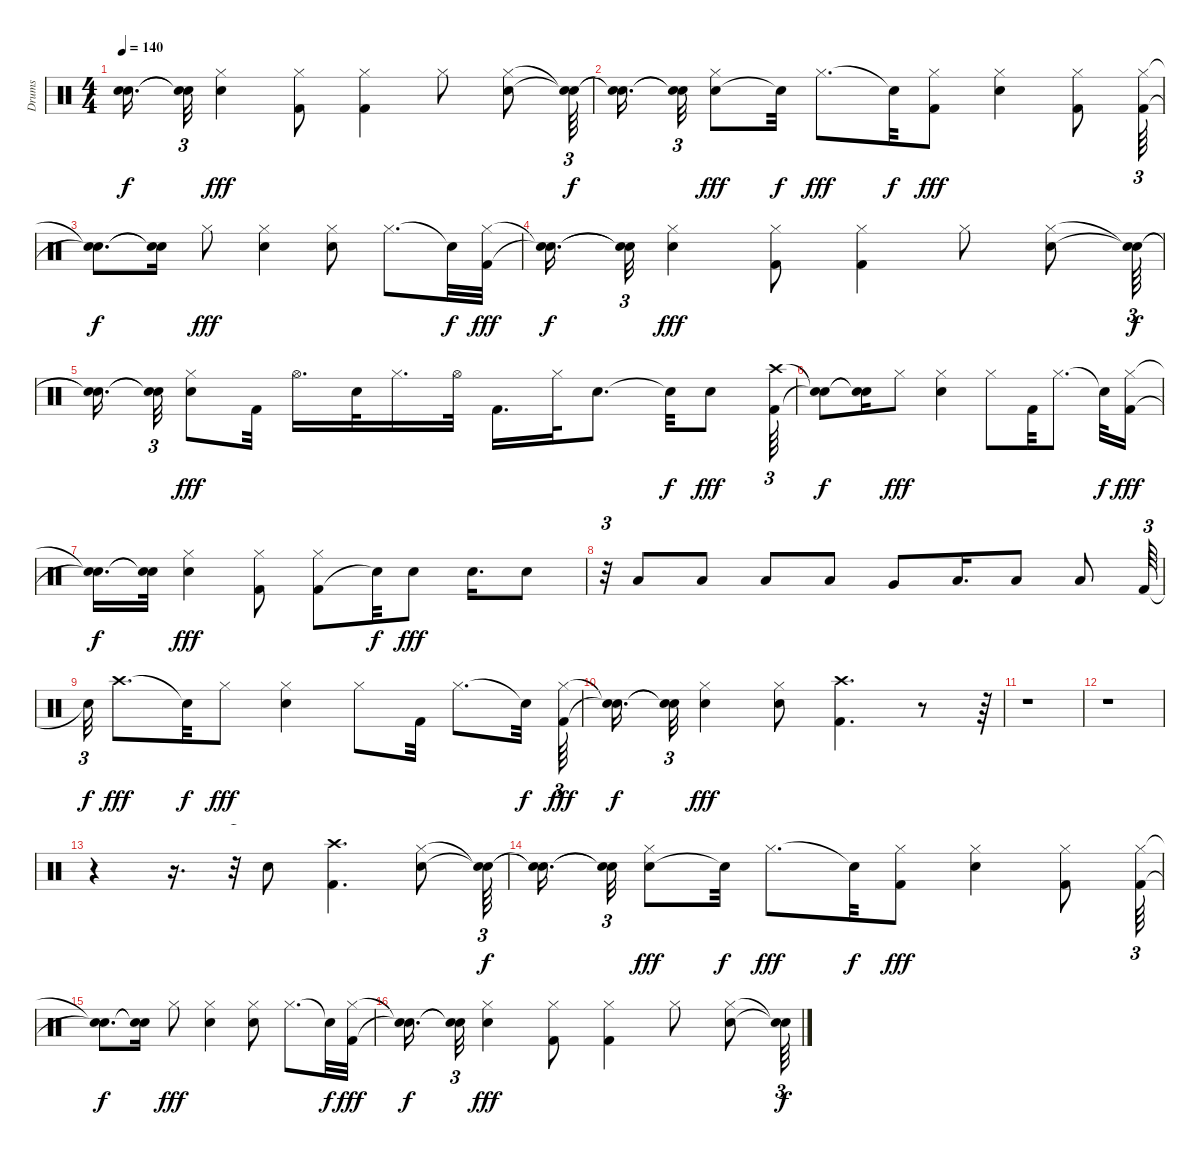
\track ("Drums" "Drums") {instrument percussion}
\staff {score}
\articulation defaults
\ts (4 4)
\tempo 140
\clef neutral
\ks c
("Snare (hit)"{t} "Snare (hit)"{t}).16{d dy f} ("Snare (hit)"{t} "Snare (hit)"{t}).32{tu (3 2)} ("Electric Snare (hit)" "Hi-Hat (closed)").4{dy fff} ("Kick (hit) 2" "Hi-Hat (closed)").8 ("Hi-Hat (closed)" "Kick (hit) 2").4 "Hi-Hat (closed)".8 ("Snare (hit) 2" "Hi-Hat (closed)").8 ("Snare (hit)"{t} "Snare (hit)"{t}).64{tu (3 2) dy f} |
("Snare (hit)"{t} "Snare (hit)"{t}).16{d} ("Snare (hit)"{t} "Snare (hit)"{t}).32{tu (3 2)} ("Snare (hit) 2" "Hi-Hat (closed)").8{dy fff} "Snare (hit)"{t}.32{dy f} "Hi-Hat (closed)".8{d dy fff} "Snare (hit)"{t}.32{dy f} ("Hi-Hat (closed)" "Kick (hit) 2").8{dy fff} ("Electric Snare (hit)" "Hi-Hat (closed)").4 ("Kick (hit) 2" "Hi-Hat (closed)").8 ("Kick (hit) 2" "Hi-Hat (closed)").64{tu (3 2)} |
("Snare (hit)"{t} "Snare (hit)"{t}).8{d dy f} ("Snare (hit)"{t} "Snare (hit)"{t}).16 "Hi-Hat (closed)".8{dy fff} ("Snare (hit) 2" "Hi-Hat (closed)").4 ("Snare (hit) 2" "Hi-Hat (closed)").8 "Hi-Hat (closed)".8{d} "Snare (hit)"{t}.32{dy f} ("Hi-Hat (closed)" "Kick (hit) 2").32{dy fff} |
("Snare (hit)"{t} "Snare (hit)"{t}).16{d dy f} ("Snare (hit)"{t} "Snare (hit)"{t}).32{tu (3 2)} ("Electric Snare (hit)" "Hi-Hat (closed)").4{dy fff} ("Hi-Hat (closed)" "Kick (hit) 2").8 ("Kick (hit) 2" "Hi-Hat (closed)").4 "Hi-Hat (closed)".8 ("Snare (hit) 2" "Hi-Hat (closed)").8 ("Snare (hit)"{t} "Snare (hit)"{t}).64{tu (3 2) dy f} |
("Snare (hit)"{t} "Snare (hit)"{t}).16{d} ("Snare (hit)"{t} "Snare (hit)"{t}).32{tu (3 2)} ("Snare (hit) 2" "Hi-Hat (closed)").8{dy fff} "Kick (hit) 2".32 "Hi-Hat (open)".16{d} "Electric Snare (hit)".32 "Hi-Hat (closed)".16{d} "Hi-Hat (open)".32 "Kick (hit) 2".16{d} "Hi-Hat (closed)".32 "Snare (hit) 2".8{d} "Snare (hit)"{t}.32{dy f} "Snare (hit) 2".8{dy fff} ("Crash high (hit)" "Kick (hit) 2").64{tu (3 2)} |
("Snare (hit)"{t} "Snare (hit)"{t}).8{dy f} ("Snare (hit)"{t} "Snare (hit)"{t}).16 "Hi-Hat (closed)".8{dy fff} ("Snare (hit) 2" "Hi-Hat (closed)").4 "Hi-Hat (closed)".8 "Kick (hit) 2".32 "Hi-Hat (closed)".8{d} "Snare (hit)"{t}.32{dy f} ("Hi-Hat (closed)" "Kick (hit) 2").16{dy fff} |
("Snare (hit)"{t} "Snare (hit)"{t}).16{d dy f} ("Snare (hit)"{t} "Snare (hit)"{t}).32 ("Electric Snare (hit)" "Hi-Hat (closed)").4{dy fff} ("Hi-Hat (closed)" "Kick (hit) 2").8 ("Kick (hit) 2" "Hi-Hat (closed)").8 "Snare (hit)"{t}.32{dy f} "Snare (hit) 2".8{dy fff} "Snare (hit) 2".16{d} "Electric Snare (hit)".8 |
r.32{tu (3 2)} "Low Tom (hit)".8 "Low Tom (hit)".8 "Low Tom (hit)".8 "Low Tom (hit)".8 "Very Low Tom (hit)".8 "Low Floor Tom (hit)".16{d} "Low Floor Tom (hit)".8 "Low Floor Tom (hit)".8 "Kick (hit) 2".64{tu (3 2)} |
"Snare (hit)"{t}.32{tu (3 2) dy f} "Crash high (hit)".8{d dy fff} "Snare (hit)"{t}.32{dy f} "Hi-Hat (closed)".8{dy fff} ("Snare (hit) 2" "Hi-Hat (closed)").4 "Hi-Hat (closed)".8 "Kick (hit) 2".32 "Hi-Hat (closed)".8{d} "Snare (hit)"{t}.32{dy f} ("Hi-Hat (closed)" "Kick (hit) 2").64{tu (3 2) dy fff} |
("Snare (hit)"{t} "Snare (hit)"{t}).16{d dy f} ("Snare (hit)"{t} "Snare (hit)"{t}).32{tu (3 2)} ("Electric Snare (hit)" "Hi-Hat (closed)").4{dy fff} ("Snare (hit) 2" "Hi-Hat (closed)").8 ("Kick (hit) 2" "Crash high (hit)").4{d} r.8 r.64{tu (3 2)} |
r.1 |
r.1 |
r.4 r.16{d} r.32{tu (3 2)} "Electric Snare (hit)".8 ("Kick (hit) 2" "Crash high (hit)").4{d} ("Snare (hit) 2" "Hi-Hat (closed)").8 ("Snare (hit)"{t} "Snare (hit)"{t}).64{tu (3 2) dy f} |
("Snare (hit)"{t} "Snare (hit)"{t}).16{d} ("Snare (hit)"{t} "Snare (hit)"{t}).32{tu (3 2)} ("Snare (hit) 2" "Hi-Hat (closed)").8{dy fff} "Snare (hit)"{t}.32{dy f} "Hi-Hat (closed)".8{d dy fff} "Snare (hit)"{t}.32{dy f} ("Hi-Hat (closed)" "Kick (hit) 2").8{dy fff} ("Electric Snare (hit)" "Hi-Hat (closed)").4 ("Hi-Hat (closed)" "Kick (hit) 2").8 ("Kick (hit) 2" "Hi-Hat (closed)").64{tu (3 2)} |
("Snare (hit)"{t} "Snare (hit)"{t}).8{d dy f} ("Snare (hit)"{t} "Snare (hit)"{t}).16 "Hi-Hat (closed)".8{dy fff} ("Snare (hit) 2" "Hi-Hat (closed)").4 ("Snare (hit) 2" "Hi-Hat (closed)").8 "Hi-Hat (closed)".8{d} "Snare (hit)"{t}.32{dy f} ("Hi-Hat (closed)" "Kick (hit) 2").32{dy fff} |
("Snare (hit)"{t} "Snare (hit)"{t}).16{d dy f} ("Snare (hit)"{t} "Snare (hit)"{t}).32{tu (3 2)} ("Electric Snare (hit)" "Hi-Hat (closed)").4{dy fff} ("Kick (hit) 2" "Hi-Hat (closed)").8 ("Kick (hit) 2" "Hi-Hat (closed)").4 "Hi-Hat (closed)".8 ("Snare (hit) 2" "Hi-Hat (closed)").8 ("Snare (hit)"{t} "Snare (hit)"{t}).64{tu (3 2) dy f}
